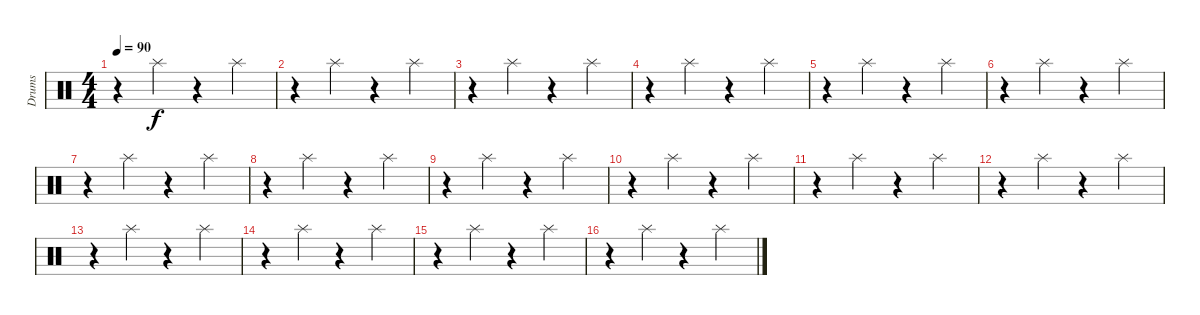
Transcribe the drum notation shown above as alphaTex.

\track ("Drums" "Drums") {instrument percussion}
\staff {score}
\articulation defaults
\ts (4 4)
\tempo 90
\clef neutral
\ks c
r.4{dy f} "Splash (hit)".4 r.4 "Splash (hit)".4 |
r.4 "Splash (hit)".4 r.4 "Splash (hit)".4 |
r.4 "Splash (hit)".4 r.4 "Splash (hit)".4 |
r.4 "Splash (hit)".4 r.4 "Splash (hit)".4 |
r.4 "Splash (hit)".4 r.4 "Splash (hit)".4 |
r.4 "Splash (hit)".4 r.4 "Splash (hit)".4 |
r.4 "Splash (hit)".4 r.4 "Splash (hit)".4 |
r.4 "Splash (hit)".4 r.4 "Splash (hit)".4 |
r.4 "Splash (hit)".4 r.4 "Splash (hit)".4 |
r.4 "Splash (hit)".4 r.4 "Splash (hit)".4 |
r.4 "Splash (hit)".4 r.4 "Splash (hit)".4 |
r.4 "Splash (hit)".4 r.4 "Splash (hit)".4 |
r.4 "Splash (hit)".4 r.4 "Splash (hit)".4 |
r.4 "Splash (hit)".4 r.4 "Splash (hit)".4 |
r.4 "Splash (hit)".4 r.4 "Splash (hit)".4 |
r.4 "Splash (hit)".4 r.4 "Splash (hit)".4
